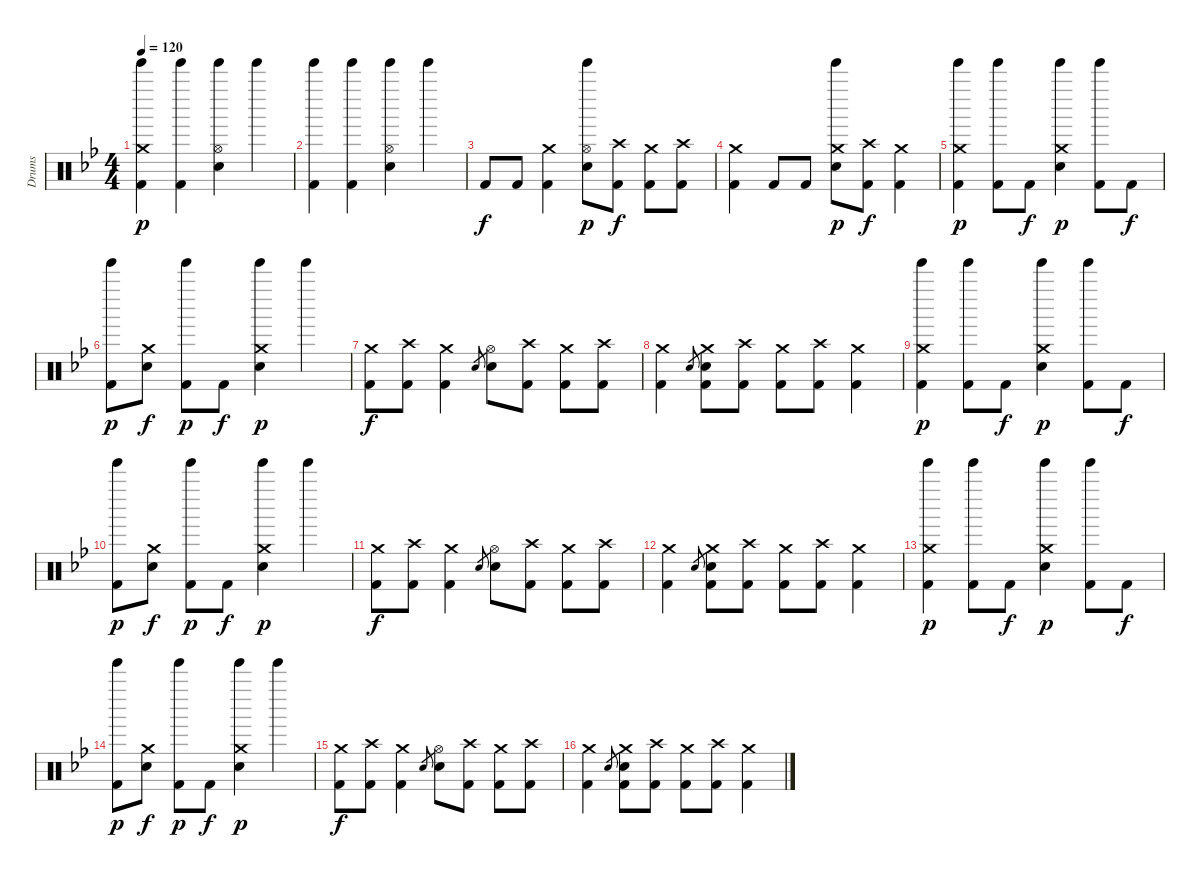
\track ("Drums" "Drums") {instrument percussion}
\staff {score}
\articulation defaults
\ts (4 4)
\tempo 120
\clef neutral
\ks bb
("Tinkle Bell (hit)" "Crash medium (hit)" "Kick (hit) 2").4{dy p} ("Tinkle Bell (hit)" "Kick (hit) 2").4 ("Tinkle Bell (hit)" "Snare (hit) 2" "Hi-Hat (open)").4 "Tinkle Bell (hit)".4 |
("Tinkle Bell (hit)" "Kick (hit) 2").4 ("Tinkle Bell (hit)" "Kick (hit) 2").4 ("Tinkle Bell (hit)" "Snare (hit) 2" "Hi-Hat (open)").4 "Tinkle Bell (hit)".4 |
"Kick (hit) 2".8{dy f} "Kick (hit) 2".8 ("Crash medium (hit)" "Kick (hit) 2").4 ("Tinkle Bell (hit)" "Snare (hit) 2" "Hi-Hat (open)").8{dy p} ("Crash high (hit)" "Kick (hit) 2").8{dy f} ("Crash medium (hit)" "Kick (hit) 2").8 ("Crash high (hit)" "Kick (hit) 2").8 |
("Crash medium (hit)" "Kick (hit) 2").4 "Kick (hit) 2".8 "Kick (hit) 2".8 ("Tinkle Bell (hit)" "Snare (hit) 2" "Crash medium (hit)").8{dy p} ("Crash high (hit)" "Kick (hit) 2").8{dy f} ("Crash medium (hit)" "Kick (hit) 2").4 |
("Tinkle Bell (hit)" "Crash medium (hit)" "Kick (hit) 2").4{dy p} ("Tinkle Bell (hit)" "Kick (hit) 2").8 "Kick (hit) 2".8{dy f} ("Tinkle Bell (hit)" "Snare (hit) 2" "Crash medium (hit)").4{dy p} ("Tinkle Bell (hit)" "Kick (hit) 2").8 "Kick (hit) 2".8{dy f} |
("Tinkle Bell (hit)" "Kick (hit) 2").8{dy p} ("Snare (hit) 2" "Crash medium (hit)").8{dy f} ("Tinkle Bell (hit)" "Kick (hit) 2").8{dy p} "Kick (hit) 2".8{dy f} ("Tinkle Bell (hit)" "Snare (hit) 2" "Crash medium (hit)").4{dy p} "Tinkle Bell (hit)".4 |
("Crash medium (hit)" "Kick (hit) 2").8{dy f} ("Crash high (hit)" "Kick (hit) 2").8 ("Crash medium (hit)" "Kick (hit) 2").4 "Snare (hit) 2".8{gr} ("Snare (hit) 2" "Hi-Hat (open)").8 ("Crash high (hit)" "Kick (hit) 2").8 ("Crash medium (hit)" "Kick (hit) 2").8 ("Crash high (hit)" "Kick (hit) 2").8 |
("Crash medium (hit)" "Kick (hit) 2").4 "Snare (hit) 2".8{gr} ("Snare (hit) 2" "Crash medium (hit)" "Kick (hit) 2").8 ("Crash high (hit)" "Kick (hit) 2").8 ("Crash medium (hit)" "Kick (hit) 2").8 ("Crash high (hit)" "Kick (hit) 2").8 ("Crash medium (hit)" "Kick (hit) 2").4 |
("Tinkle Bell (hit)" "Crash medium (hit)" "Kick (hit) 2").4{dy p} ("Tinkle Bell (hit)" "Kick (hit) 2").8 "Kick (hit) 2".8{dy f} ("Tinkle Bell (hit)" "Snare (hit) 2" "Crash medium (hit)").4{dy p} ("Tinkle Bell (hit)" "Kick (hit) 2").8 "Kick (hit) 2".8{dy f} |
("Tinkle Bell (hit)" "Kick (hit) 2").8{dy p} ("Snare (hit) 2" "Crash medium (hit)").8{dy f} ("Tinkle Bell (hit)" "Kick (hit) 2").8{dy p} "Kick (hit) 2".8{dy f} ("Tinkle Bell (hit)" "Snare (hit) 2" "Crash medium (hit)").4{dy p} "Tinkle Bell (hit)".4 |
("Crash medium (hit)" "Kick (hit) 2").8{dy f} ("Crash high (hit)" "Kick (hit) 2").8 ("Crash medium (hit)" "Kick (hit) 2").4 "Snare (hit) 2".8{gr} ("Snare (hit) 2" "Hi-Hat (open)").8 ("Crash high (hit)" "Kick (hit) 2").8 ("Crash medium (hit)" "Kick (hit) 2").8 ("Crash high (hit)" "Kick (hit) 2").8 |
("Crash medium (hit)" "Kick (hit) 2").4 "Snare (hit) 2".8{gr} ("Snare (hit) 2" "Crash medium (hit)" "Kick (hit) 2").8 ("Crash high (hit)" "Kick (hit) 2").8 ("Crash medium (hit)" "Kick (hit) 2").8 ("Crash high (hit)" "Kick (hit) 2").8 ("Crash medium (hit)" "Kick (hit) 2").4 |
("Tinkle Bell (hit)" "Crash medium (hit)" "Kick (hit) 2").4{dy p} ("Tinkle Bell (hit)" "Kick (hit) 2").8 "Kick (hit) 2".8{dy f} ("Tinkle Bell (hit)" "Snare (hit) 2" "Crash medium (hit)").4{dy p} ("Tinkle Bell (hit)" "Kick (hit) 2").8 "Kick (hit) 2".8{dy f} |
("Tinkle Bell (hit)" "Kick (hit) 2").8{dy p} ("Snare (hit) 2" "Crash medium (hit)").8{dy f} ("Tinkle Bell (hit)" "Kick (hit) 2").8{dy p} "Kick (hit) 2".8{dy f} ("Tinkle Bell (hit)" "Snare (hit) 2" "Crash medium (hit)").4{dy p} "Tinkle Bell (hit)".4 |
("Crash medium (hit)" "Kick (hit) 2").8{dy f} ("Crash high (hit)" "Kick (hit) 2").8 ("Crash medium (hit)" "Kick (hit) 2").4 "Snare (hit) 2".8{gr} ("Snare (hit) 2" "Hi-Hat (open)").8 ("Crash high (hit)" "Kick (hit) 2").8 ("Crash medium (hit)" "Kick (hit) 2").8 ("Crash high (hit)" "Kick (hit) 2").8 |
("Crash medium (hit)" "Kick (hit) 2").4 "Snare (hit) 2".8{gr} ("Snare (hit) 2" "Crash medium (hit)" "Kick (hit) 2").8 ("Crash high (hit)" "Kick (hit) 2").8 ("Crash medium (hit)" "Kick (hit) 2").8 ("Crash high (hit)" "Kick (hit) 2").8 ("Crash medium (hit)" "Kick (hit) 2").4
